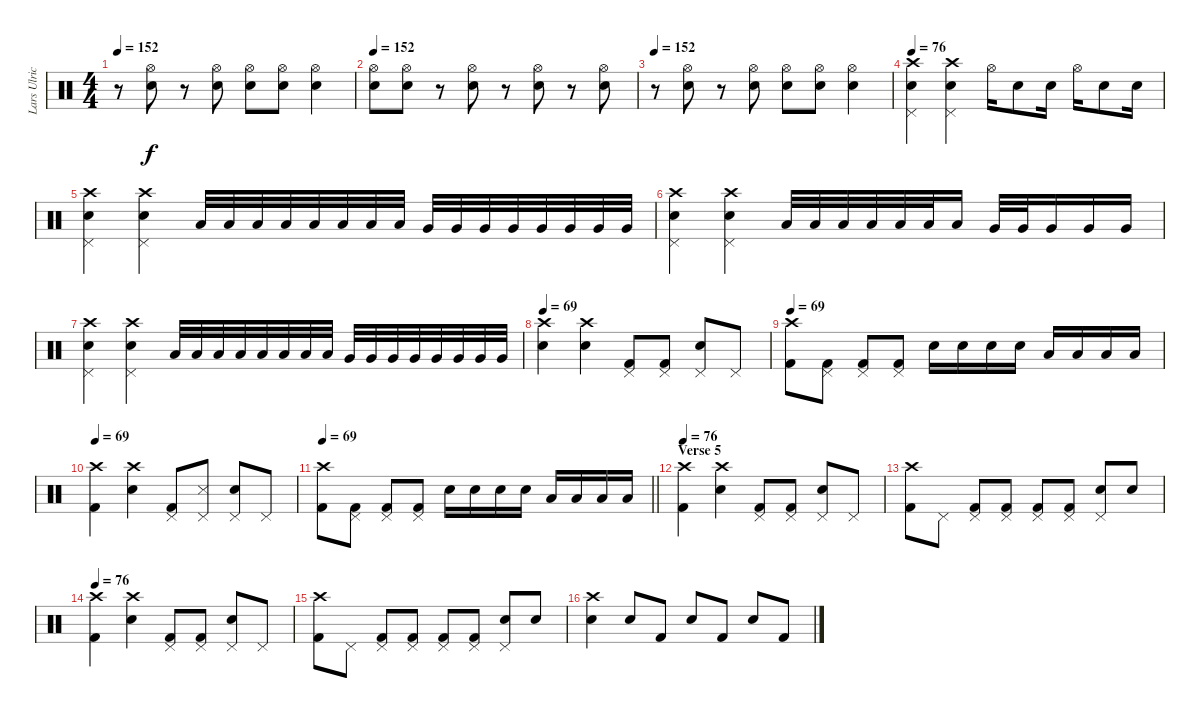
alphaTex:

\track ("Lars Ulrich" "Lars Ulric") {instrument percussion}
\staff {score}
\articulation defaults
\ts (4 4)
\tempo 152
\clef neutral
\ks c
r.8{dy f} ("Snare (hit) 2" "Hi-Hat (open)").8 r.8 ("Snare (hit) 2" "Hi-Hat (open)").8 ("Snare (hit) 2" "Hi-Hat (open)").8 ("Snare (hit) 2" "Hi-Hat (open)").8 ("Snare (hit) 2" "Hi-Hat (open)").4 |
\tempo 152
("Snare (hit) 2" "Hi-Hat (open)").8 ("Snare (hit) 2" "Hi-Hat (open)").8 r.8 ("Snare (hit) 2" "Hi-Hat (open)").8 r.8 ("Snare (hit) 2" "Hi-Hat (open)").8 r.8 ("Snare (hit) 2" "Hi-Hat (open)").8 |
\tempo 152
r.8 ("Snare (hit) 2" "Hi-Hat (open)").8 r.8 ("Snare (hit) 2" "Hi-Hat (open)").8 ("Snare (hit) 2" "Hi-Hat (open)").8 ("Snare (hit) 2" "Hi-Hat (open)").8 ("Snare (hit) 2" "Hi-Hat (open)").4 |
\tempo 76
("Pedal Hi-Hat (hit)" "Crash high (hit)" "Snare (hit) 2").4 ("Pedal Hi-Hat (hit)" "Crash high (hit)" "Snare (hit) 2").4 "Hi-Hat (open)".16 "Snare (hit) 2".8 "Snare (hit) 2".16 "Hi-Hat (open)".16 "Snare (hit) 2".8 "Snare (hit) 2".16 |
("Pedal Hi-Hat (hit)" "Crash high (hit)" "Snare (hit) 2").4 ("Pedal Hi-Hat (hit)" "Crash high (hit)" "Snare (hit) 2").4 "Low Tom (hit)".32 "Low Tom (hit)".32 "Low Tom (hit)".32 "Low Tom (hit)".32 "Low Tom (hit)".32 "Low Tom (hit)".32 "Low Tom (hit)".32 "Low Tom (hit)".32 "Very Low Tom (hit)".32 "Very Low Tom (hit)".32 "Very Low Tom (hit)".32 "Very Low Tom (hit)".32 "Very Low Tom (hit)".32 "Very Low Tom (hit)".32 "Very Low Tom (hit)".32 "Very Low Tom (hit)".32 |
("Pedal Hi-Hat (hit)" "Crash high (hit)" "Snare (hit) 2").4 ("Pedal Hi-Hat (hit)" "Crash high (hit)" "Snare (hit) 2").4 "Low Tom (hit)".32 "Low Tom (hit)".32 "Low Tom (hit)".32 "Low Tom (hit)".32 "Low Tom (hit)".32 "Low Tom (hit)".32 "Low Tom (hit)".16 "Very Low Tom (hit)".32 "Very Low Tom (hit)".32 "Very Low Tom (hit)".16 "Very Low Tom (hit)".16 "Very Low Tom (hit)".16 |
("Pedal Hi-Hat (hit)" "Crash high (hit)" "Snare (hit) 2").4 ("Pedal Hi-Hat (hit)" "Crash high (hit)" "Snare (hit) 2").4 "Low Tom (hit)".32 "Low Tom (hit)".32 "Low Tom (hit)".32 "Low Tom (hit)".32 "Low Tom (hit)".32 "Low Tom (hit)".32 "Low Tom (hit)".32 "Low Tom (hit)".32 "Very Low Tom (hit)".32 "Very Low Tom (hit)".32 "Very Low Tom (hit)".32 "Very Low Tom (hit)".32 "Very Low Tom (hit)".32 "Very Low Tom (hit)".32 "Very Low Tom (hit)".32 "Very Low Tom (hit)".32 |
\tempo 69
("Crash high (hit)" "Snare (hit) 2").4 ("Crash high (hit)" "Snare (hit) 2").4 ("Pedal Hi-Hat (hit)" "Kick (hit) 2").8 ("Pedal Hi-Hat (hit)" "Kick (hit) 2").8 ("Pedal Hi-Hat (hit)" "Snare (hit) 2").8 "Pedal Hi-Hat (hit)".8 |
\tempo 69
("Crash high (hit)" "Kick (hit) 2").8 ("Pedal Hi-Hat (hit)" "Kick (hit) 2").8 ("Pedal Hi-Hat (hit)" "Kick (hit) 2").8 ("Pedal Hi-Hat (hit)" "Kick (hit) 2").8 "Snare (hit) 2".16 "Snare (hit) 2".16 "Snare (hit) 2".16 "Snare (hit) 2".16 "Low Tom (hit)".16 "Low Tom (hit)".16 "Low Tom (hit)".16 "Low Tom (hit)".16 |
\tempo 69
("Crash high (hit)" "Kick (hit) 2").4 ("Crash high (hit)" "Snare (hit) 2").4 ("Pedal Hi-Hat (hit)" "Kick (hit) 2").8 ("Pedal Hi-Hat (hit)" "Metronome (hit)").8 ("Pedal Hi-Hat (hit)" "Snare (hit) 2").8 "Pedal Hi-Hat (hit)".8 |
\tempo 69
\barLineRight lightlight
("Crash high (hit)" "Kick (hit) 2").8 ("Pedal Hi-Hat (hit)" "Kick (hit) 2").8 ("Pedal Hi-Hat (hit)" "Kick (hit) 2").8 ("Pedal Hi-Hat (hit)" "Kick (hit) 2").8 "Snare (hit) 2".16 "Snare (hit) 2".16 "Snare (hit) 2".16 "Snare (hit) 2".16 "Low Tom (hit)".16 "Low Tom (hit)".16 "Low Tom (hit)".16 "Low Tom (hit)".16 |
\section ("" "Verse 5")
\tempo 76
("Crash high (hit)" "Kick (hit) 2").4 ("Crash high (hit)" "Snare (hit) 2").4 ("Pedal Hi-Hat (hit)" "Kick (hit) 2").8 ("Pedal Hi-Hat (hit)" "Kick (hit) 2").8 ("Pedal Hi-Hat (hit)" "Snare (hit) 2").8 "Pedal Hi-Hat (hit)".8 |
("Crash high (hit)" "Kick (hit) 2").8 "Pedal Hi-Hat (hit)".8 ("Pedal Hi-Hat (hit)" "Kick (hit) 2").8 ("Pedal Hi-Hat (hit)" "Kick (hit) 2").8 ("Pedal Hi-Hat (hit)" "Kick (hit) 2").8 ("Pedal Hi-Hat (hit)" "Kick (hit) 2").8 ("Pedal Hi-Hat (hit)" "Snare (hit) 2").8 "Snare (hit) 2".8 |
\tempo 76
("Crash high (hit)" "Kick (hit) 2").4 ("Crash high (hit)" "Snare (hit) 2").4 ("Pedal Hi-Hat (hit)" "Kick (hit) 2").8 ("Pedal Hi-Hat (hit)" "Kick (hit) 2").8 ("Pedal Hi-Hat (hit)" "Snare (hit) 2").8 "Pedal Hi-Hat (hit)".8 |
("Crash high (hit)" "Kick (hit) 2").8 "Pedal Hi-Hat (hit)".8 ("Pedal Hi-Hat (hit)" "Kick (hit) 2").8 ("Pedal Hi-Hat (hit)" "Kick (hit) 2").8 ("Pedal Hi-Hat (hit)" "Kick (hit) 2").8 ("Pedal Hi-Hat (hit)" "Kick (hit) 2").8 ("Pedal Hi-Hat (hit)" "Snare (hit) 2").8 "Snare (hit) 2".8 |
("Crash high (hit)" "Snare (hit) 2").4 "Snare (hit) 2".8 "Kick (hit) 2".8 "Snare (hit) 2".8 "Kick (hit) 2".8 "Snare (hit) 2".8 "Kick (hit) 2".8
